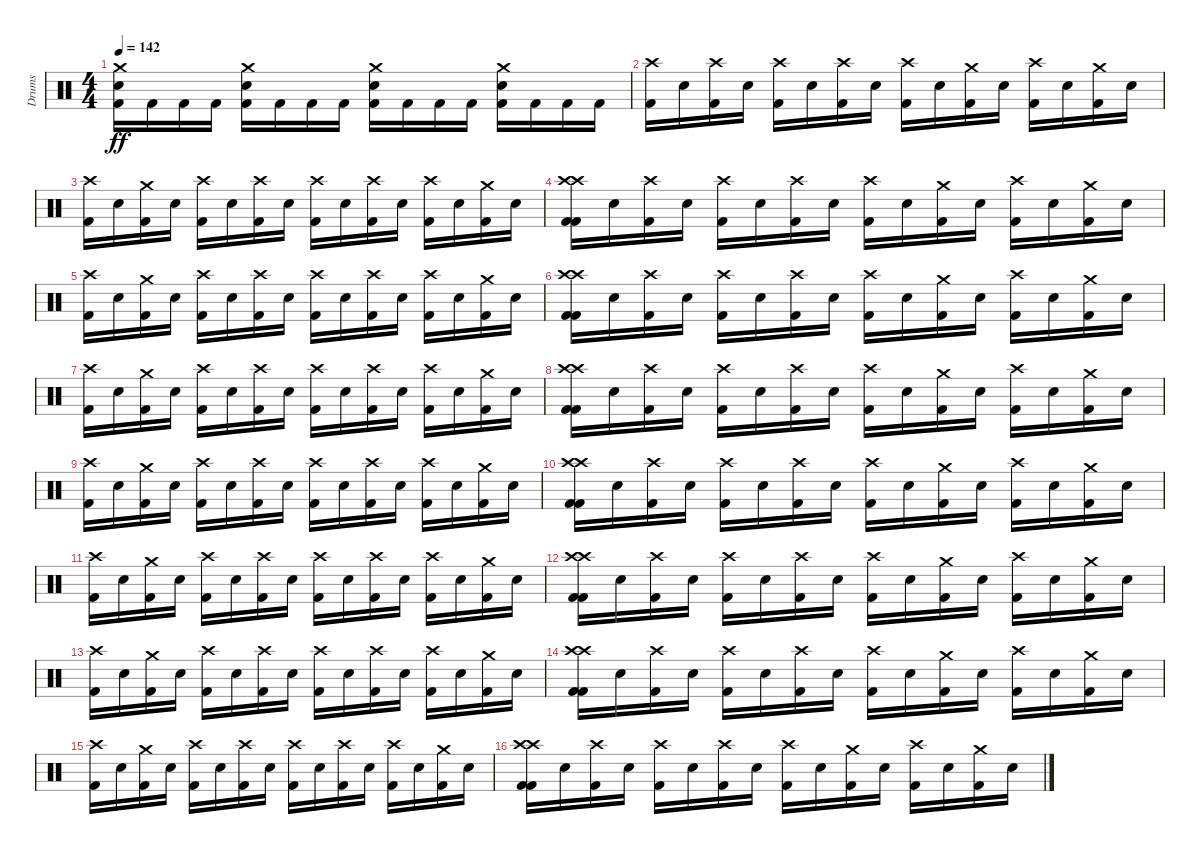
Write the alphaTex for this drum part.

\track ("Drums" "Drums") {instrument percussion}
\staff {score}
\articulation defaults
\ts (4 4)
\tempo 142
\clef neutral
\ks c
("Crash medium (hit)" "Kick (hit) 2" "Snare (hit) 2").16{dy ff} "Kick (hit) 2".16 "Kick (hit) 2".16 "Kick (hit) 2".16 ("Crash medium (hit)" "Kick (hit) 2" "Snare (hit) 2").16 "Kick (hit) 2".16 "Kick (hit) 2".16 "Kick (hit) 2".16 ("Crash medium (hit)" "Kick (hit) 2" "Snare (hit) 2").16 "Kick (hit) 2".16 "Kick (hit) 2".16 "Kick (hit) 2".16 ("Crash medium (hit)" "Kick (hit) 2" "Snare (hit) 2").16 "Kick (hit) 2".16 "Kick (hit) 2".16 "Kick (hit) 2".16 |
("Crash high (hit)" "Kick (hit) 2").16 "Snare (hit) 2".16 ("Crash high (hit)" "Kick (hit) 2").16 "Snare (hit) 2".16 ("Crash high (hit)" "Kick (hit) 2").16 "Snare (hit) 2".16 ("Crash high (hit)" "Kick (hit) 2").16 "Snare (hit) 2".16 ("Crash high (hit)" "Kick (hit) 2").16 "Snare (hit) 2".16 ("Crash medium (hit)" "Kick (hit) 2").16 "Snare (hit) 2".16 ("Crash high (hit)" "Kick (hit) 2").16 "Snare (hit) 2".16 ("Crash medium (hit)" "Kick (hit) 2").16 "Snare (hit) 2".16 |
("Crash high (hit)" "Kick (hit) 2").16 "Snare (hit) 2".16 ("Crash medium (hit)" "Kick (hit) 2").16 "Snare (hit) 2".16 ("Crash high (hit)" "Kick (hit) 2").16 "Snare (hit) 2".16 ("Crash high (hit)" "Kick (hit) 2").16 "Snare (hit) 2".16 ("Crash high (hit)" "Kick (hit) 2").16 "Snare (hit) 2".16 ("Crash high (hit)" "Kick (hit) 2").16 "Snare (hit) 2".16 ("Crash high (hit)" "Kick (hit) 2").16 "Snare (hit) 2".16 ("Crash medium (hit)" "Kick (hit) 2").16 "Snare (hit) 2".16 |
("Crash high (hit)" "Kick (hit) 2" "Crash high (hit)" "Kick (hit) 2").16 "Snare (hit) 2".16 ("Crash high (hit)" "Kick (hit) 2").16 "Snare (hit) 2".16 ("Crash high (hit)" "Kick (hit) 2").16 "Snare (hit) 2".16 ("Crash high (hit)" "Kick (hit) 2").16 "Snare (hit) 2".16 ("Crash high (hit)" "Kick (hit) 2").16 "Snare (hit) 2".16 ("Crash medium (hit)" "Kick (hit) 2").16 "Snare (hit) 2".16 ("Crash high (hit)" "Kick (hit) 2").16 "Snare (hit) 2".16 ("Crash medium (hit)" "Kick (hit) 2").16 "Snare (hit) 2".16 |
("Crash high (hit)" "Kick (hit) 2").16 "Snare (hit) 2".16 ("Crash medium (hit)" "Kick (hit) 2").16 "Snare (hit) 2".16 ("Crash high (hit)" "Kick (hit) 2").16 "Snare (hit) 2".16 ("Crash high (hit)" "Kick (hit) 2").16 "Snare (hit) 2".16 ("Crash high (hit)" "Kick (hit) 2").16 "Snare (hit) 2".16 ("Crash high (hit)" "Kick (hit) 2").16 "Snare (hit) 2".16 ("Crash high (hit)" "Kick (hit) 2").16 "Snare (hit) 2".16 ("Crash medium (hit)" "Kick (hit) 2").16 "Snare (hit) 2".16 |
("Crash high (hit)" "Kick (hit) 2" "Crash high (hit)" "Kick (hit) 2").16 "Snare (hit) 2".16 ("Crash high (hit)" "Kick (hit) 2").16 "Snare (hit) 2".16 ("Crash high (hit)" "Kick (hit) 2").16 "Snare (hit) 2".16 ("Crash high (hit)" "Kick (hit) 2").16 "Snare (hit) 2".16 ("Crash high (hit)" "Kick (hit) 2").16 "Snare (hit) 2".16 ("Crash medium (hit)" "Kick (hit) 2").16 "Snare (hit) 2".16 ("Crash high (hit)" "Kick (hit) 2").16 "Snare (hit) 2".16 ("Crash medium (hit)" "Kick (hit) 2").16 "Snare (hit) 2".16 |
("Crash high (hit)" "Kick (hit) 2").16 "Snare (hit) 2".16 ("Crash medium (hit)" "Kick (hit) 2").16 "Snare (hit) 2".16 ("Crash high (hit)" "Kick (hit) 2").16 "Snare (hit) 2".16 ("Crash high (hit)" "Kick (hit) 2").16 "Snare (hit) 2".16 ("Crash high (hit)" "Kick (hit) 2").16 "Snare (hit) 2".16 ("Crash high (hit)" "Kick (hit) 2").16 "Snare (hit) 2".16 ("Crash high (hit)" "Kick (hit) 2").16 "Snare (hit) 2".16 ("Crash medium (hit)" "Kick (hit) 2").16 "Snare (hit) 2".16 |
("Crash high (hit)" "Kick (hit) 2" "Crash high (hit)" "Kick (hit) 2").16 "Snare (hit) 2".16 ("Crash high (hit)" "Kick (hit) 2").16 "Snare (hit) 2".16 ("Crash high (hit)" "Kick (hit) 2").16 "Snare (hit) 2".16 ("Crash high (hit)" "Kick (hit) 2").16 "Snare (hit) 2".16 ("Crash high (hit)" "Kick (hit) 2").16 "Snare (hit) 2".16 ("Crash medium (hit)" "Kick (hit) 2").16 "Snare (hit) 2".16 ("Crash high (hit)" "Kick (hit) 2").16 "Snare (hit) 2".16 ("Crash medium (hit)" "Kick (hit) 2").16 "Snare (hit) 2".16 |
("Crash high (hit)" "Kick (hit) 2").16 "Snare (hit) 2".16 ("Crash medium (hit)" "Kick (hit) 2").16 "Snare (hit) 2".16 ("Crash high (hit)" "Kick (hit) 2").16 "Snare (hit) 2".16 ("Crash high (hit)" "Kick (hit) 2").16 "Snare (hit) 2".16 ("Crash high (hit)" "Kick (hit) 2").16 "Snare (hit) 2".16 ("Crash high (hit)" "Kick (hit) 2").16 "Snare (hit) 2".16 ("Crash high (hit)" "Kick (hit) 2").16 "Snare (hit) 2".16 ("Crash medium (hit)" "Kick (hit) 2").16 "Snare (hit) 2".16 |
("Crash high (hit)" "Kick (hit) 2" "Crash high (hit)" "Kick (hit) 2").16 "Snare (hit) 2".16 ("Crash high (hit)" "Kick (hit) 2").16 "Snare (hit) 2".16 ("Crash high (hit)" "Kick (hit) 2").16 "Snare (hit) 2".16 ("Crash high (hit)" "Kick (hit) 2").16 "Snare (hit) 2".16 ("Crash high (hit)" "Kick (hit) 2").16 "Snare (hit) 2".16 ("Crash medium (hit)" "Kick (hit) 2").16 "Snare (hit) 2".16 ("Crash high (hit)" "Kick (hit) 2").16 "Snare (hit) 2".16 ("Crash medium (hit)" "Kick (hit) 2").16 "Snare (hit) 2".16 |
("Crash high (hit)" "Kick (hit) 2").16 "Snare (hit) 2".16 ("Crash medium (hit)" "Kick (hit) 2").16 "Snare (hit) 2".16 ("Crash high (hit)" "Kick (hit) 2").16 "Snare (hit) 2".16 ("Crash high (hit)" "Kick (hit) 2").16 "Snare (hit) 2".16 ("Crash high (hit)" "Kick (hit) 2").16 "Snare (hit) 2".16 ("Crash high (hit)" "Kick (hit) 2").16 "Snare (hit) 2".16 ("Crash high (hit)" "Kick (hit) 2").16 "Snare (hit) 2".16 ("Crash medium (hit)" "Kick (hit) 2").16 "Snare (hit) 2".16 |
("Crash high (hit)" "Kick (hit) 2" "Crash high (hit)" "Kick (hit) 2").16 "Snare (hit) 2".16 ("Crash high (hit)" "Kick (hit) 2").16 "Snare (hit) 2".16 ("Crash high (hit)" "Kick (hit) 2").16 "Snare (hit) 2".16 ("Crash high (hit)" "Kick (hit) 2").16 "Snare (hit) 2".16 ("Crash high (hit)" "Kick (hit) 2").16 "Snare (hit) 2".16 ("Crash medium (hit)" "Kick (hit) 2").16 "Snare (hit) 2".16 ("Crash high (hit)" "Kick (hit) 2").16 "Snare (hit) 2".16 ("Crash medium (hit)" "Kick (hit) 2").16 "Snare (hit) 2".16 |
("Crash high (hit)" "Kick (hit) 2").16 "Snare (hit) 2".16 ("Crash medium (hit)" "Kick (hit) 2").16 "Snare (hit) 2".16 ("Crash high (hit)" "Kick (hit) 2").16 "Snare (hit) 2".16 ("Crash high (hit)" "Kick (hit) 2").16 "Snare (hit) 2".16 ("Crash high (hit)" "Kick (hit) 2").16 "Snare (hit) 2".16 ("Crash high (hit)" "Kick (hit) 2").16 "Snare (hit) 2".16 ("Crash high (hit)" "Kick (hit) 2").16 "Snare (hit) 2".16 ("Crash medium (hit)" "Kick (hit) 2").16 "Snare (hit) 2".16 |
("Crash high (hit)" "Kick (hit) 2" "Crash high (hit)" "Kick (hit) 2").16 "Snare (hit) 2".16 ("Crash high (hit)" "Kick (hit) 2").16 "Snare (hit) 2".16 ("Crash high (hit)" "Kick (hit) 2").16 "Snare (hit) 2".16 ("Crash high (hit)" "Kick (hit) 2").16 "Snare (hit) 2".16 ("Crash high (hit)" "Kick (hit) 2").16 "Snare (hit) 2".16 ("Crash medium (hit)" "Kick (hit) 2").16 "Snare (hit) 2".16 ("Crash high (hit)" "Kick (hit) 2").16 "Snare (hit) 2".16 ("Crash medium (hit)" "Kick (hit) 2").16 "Snare (hit) 2".16 |
("Crash high (hit)" "Kick (hit) 2").16 "Snare (hit) 2".16 ("Crash medium (hit)" "Kick (hit) 2").16 "Snare (hit) 2".16 ("Crash high (hit)" "Kick (hit) 2").16 "Snare (hit) 2".16 ("Crash high (hit)" "Kick (hit) 2").16 "Snare (hit) 2".16 ("Crash high (hit)" "Kick (hit) 2").16 "Snare (hit) 2".16 ("Crash high (hit)" "Kick (hit) 2").16 "Snare (hit) 2".16 ("Crash high (hit)" "Kick (hit) 2").16 "Snare (hit) 2".16 ("Crash medium (hit)" "Kick (hit) 2").16 "Snare (hit) 2".16 |
("Crash high (hit)" "Kick (hit) 2" "Crash high (hit)" "Kick (hit) 2").16 "Snare (hit) 2".16 ("Crash high (hit)" "Kick (hit) 2").16 "Snare (hit) 2".16 ("Crash high (hit)" "Kick (hit) 2").16 "Snare (hit) 2".16 ("Crash high (hit)" "Kick (hit) 2").16 "Snare (hit) 2".16 ("Crash high (hit)" "Kick (hit) 2").16 "Snare (hit) 2".16 ("Crash medium (hit)" "Kick (hit) 2").16 "Snare (hit) 2".16 ("Crash high (hit)" "Kick (hit) 2").16 "Snare (hit) 2".16 ("Crash medium (hit)" "Kick (hit) 2").16 "Snare (hit) 2".16
